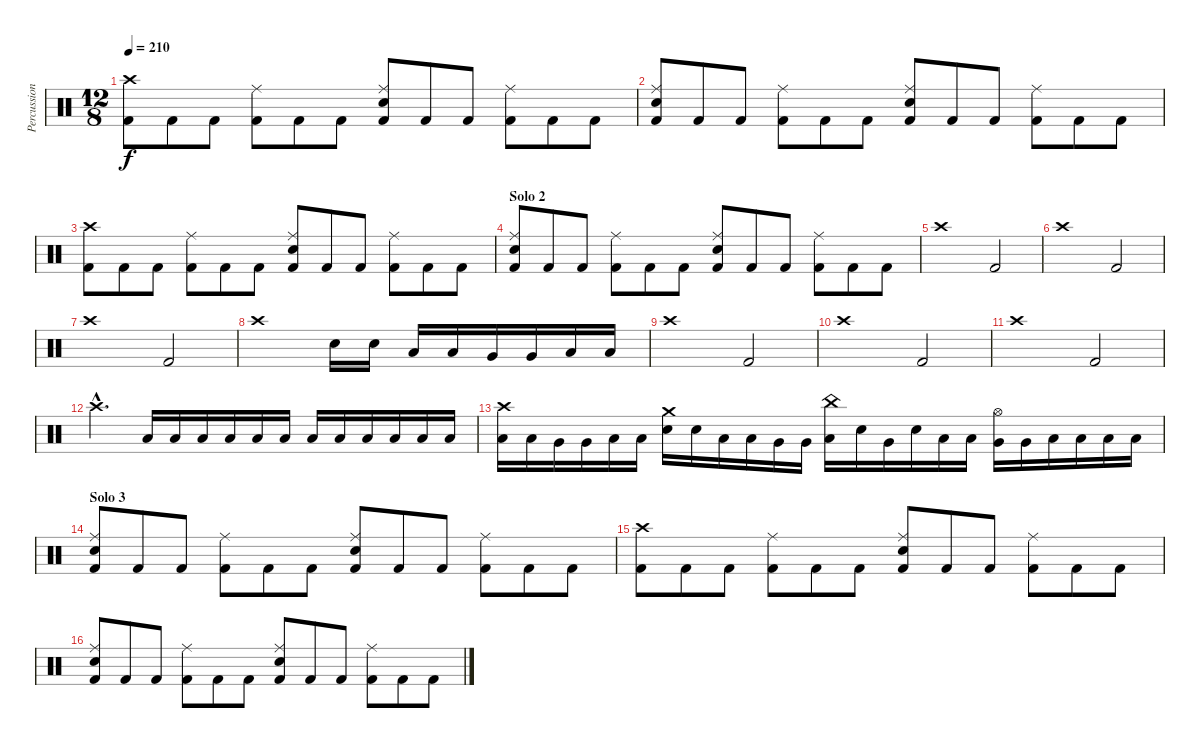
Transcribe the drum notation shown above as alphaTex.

\track ("Percussion" "Percussion") {instrument percussion}
\staff {score}
\articulation defaults
\ts (12 8)
\tempo 210
\clef neutral
\ks c
("Crash high (hit)" "Kick (hit) 2").8{dy f} "Kick (hit) 2".8 "Kick (hit) 2".8 ("Ride (middle)" "Kick (hit) 2").8 "Kick (hit) 2".8 "Kick (hit) 2".8 ("Ride (middle)" "Snare (hit) 2" "Kick (hit) 2").8 "Kick (hit) 2".8 "Kick (hit) 2".8 ("Ride (middle)" "Kick (hit) 2").8 "Kick (hit) 2".8 "Kick (hit) 2".8 |
("Ride (middle)" "Snare (hit) 2" "Kick (hit) 2").8 "Kick (hit) 2".8 "Kick (hit) 2".8 ("Ride (middle)" "Kick (hit) 2").8 "Kick (hit) 2".8 "Kick (hit) 2".8 ("Ride (middle)" "Snare (hit) 2" "Kick (hit) 2").8 "Kick (hit) 2".8 "Kick (hit) 2".8 ("Ride (middle)" "Kick (hit) 2").8 "Kick (hit) 2".8 "Kick (hit) 2".8 |
("Crash high (hit)" "Kick (hit) 2").8 "Kick (hit) 2".8 "Kick (hit) 2".8 ("Ride (middle)" "Kick (hit) 2").8 "Kick (hit) 2".8 "Kick (hit) 2".8 ("Ride (middle)" "Snare (hit) 2" "Kick (hit) 2").8 "Kick (hit) 2".8 "Kick (hit) 2".8 ("Ride (middle)" "Kick (hit) 2").8 "Kick (hit) 2".8 "Kick (hit) 2".8 |
\section ("" "Solo 2")
("Ride (middle)" "Snare (hit) 2" "Kick (hit) 2").8 "Kick (hit) 2".8 "Kick (hit) 2".8 ("Ride (middle)" "Kick (hit) 2").8 "Kick (hit) 2".8 "Kick (hit) 2".8 ("Ride (middle)" "Snare (hit) 2" "Kick (hit) 2").8 "Kick (hit) 2".8 "Kick (hit) 2".8 ("Ride (middle)" "Kick (hit) 2").8 "Kick (hit) 2".8 "Kick (hit) 2".8 |
"Crash high (hit)".1 "Kick (hit) 2".2 |
"Crash high (hit)".1 "Kick (hit) 2".2 |
"Crash high (hit)".1 "Kick (hit) 2".2 |
"Crash high (hit)".1 "Snare (hit) 2".16 "Snare (hit) 2".16 "Low Tom (hit)".16 "Low Tom (hit)".16 "Very Low Tom (hit)".16 "Very Low Tom (hit)".16 "Low Floor Tom (hit)".16 "Low Floor Tom (hit)".16 |
"Crash high (hit)".1 "Kick (hit) 2".2 |
"Crash high (hit)".1 "Kick (hit) 2".2 |
"Crash high (hit)".1 "Kick (hit) 2".2 |
"Crash high (hit)"{hac}.2{d} "Low Floor Tom (hit)".16 "Low Floor Tom (hit)".16 "Low Floor Tom (hit)".16 "Low Floor Tom (hit)".16 "Low Floor Tom (hit)".16 "Low Floor Tom (hit)".16 "Low Floor Tom (hit)".16 "Low Floor Tom (hit)".16 "Low Floor Tom (hit)".16 "Low Floor Tom (hit)".16 "Low Floor Tom (hit)".16 "Low Floor Tom (hit)".16 |
("Crash high (hit)" "Low Tom (hit)").16 "Low Tom (hit)".16 "Very Low Tom (hit)".16 "Very Low Tom (hit)".16 "Low Floor Tom (hit)".16 "Low Floor Tom (hit)".16 ("Crash medium (hit)" "Snare (hit) 2").16 "Snare (hit) 2".16 "Low Tom (hit)".16 "Low Tom (hit)".16 "Very Low Tom (hit)".16 "Very Low Tom (hit)".16 ("China (hit)" "Low Floor Tom (hit)").16 "Snare (hit) 2".16 "Very Low Tom (hit)".16 "Snare (hit) 2".16 "Low Tom (hit)".16 "Low Tom (hit)".16 ("Hi-Hat (open)" "Very Low Tom (hit)").16 "Very Low Tom (hit)".16 "Low Floor Tom (hit)".16 "Low Floor Tom (hit)".16 "Low Floor Tom (hit)".16 "Low Floor Tom (hit)".16 |
\section ("" "Solo 3")
("Ride (middle)" "Snare (hit) 2" "Kick (hit) 2").8 "Kick (hit) 2".8 "Kick (hit) 2".8 ("Ride (middle)" "Kick (hit) 2").8 "Kick (hit) 2".8 "Kick (hit) 2".8 ("Ride (middle)" "Snare (hit) 2" "Kick (hit) 2").8 "Kick (hit) 2".8 "Kick (hit) 2".8 ("Ride (middle)" "Kick (hit) 2").8 "Kick (hit) 2".8 "Kick (hit) 2".8 |
("Crash high (hit)" "Kick (hit) 2").8 "Kick (hit) 2".8 "Kick (hit) 2".8 ("Ride (middle)" "Kick (hit) 2").8 "Kick (hit) 2".8 "Kick (hit) 2".8 ("Ride (middle)" "Snare (hit) 2" "Kick (hit) 2").8 "Kick (hit) 2".8 "Kick (hit) 2".8 ("Ride (middle)" "Kick (hit) 2").8 "Kick (hit) 2".8 "Kick (hit) 2".8 |
("Ride (middle)" "Snare (hit) 2" "Kick (hit) 2").8 "Kick (hit) 2".8 "Kick (hit) 2".8 ("Ride (middle)" "Kick (hit) 2").8 "Kick (hit) 2".8 "Kick (hit) 2".8 ("Ride (middle)" "Snare (hit) 2" "Kick (hit) 2").8 "Kick (hit) 2".8 "Kick (hit) 2".8 ("Ride (middle)" "Kick (hit) 2").8 "Kick (hit) 2".8 "Kick (hit) 2".8
